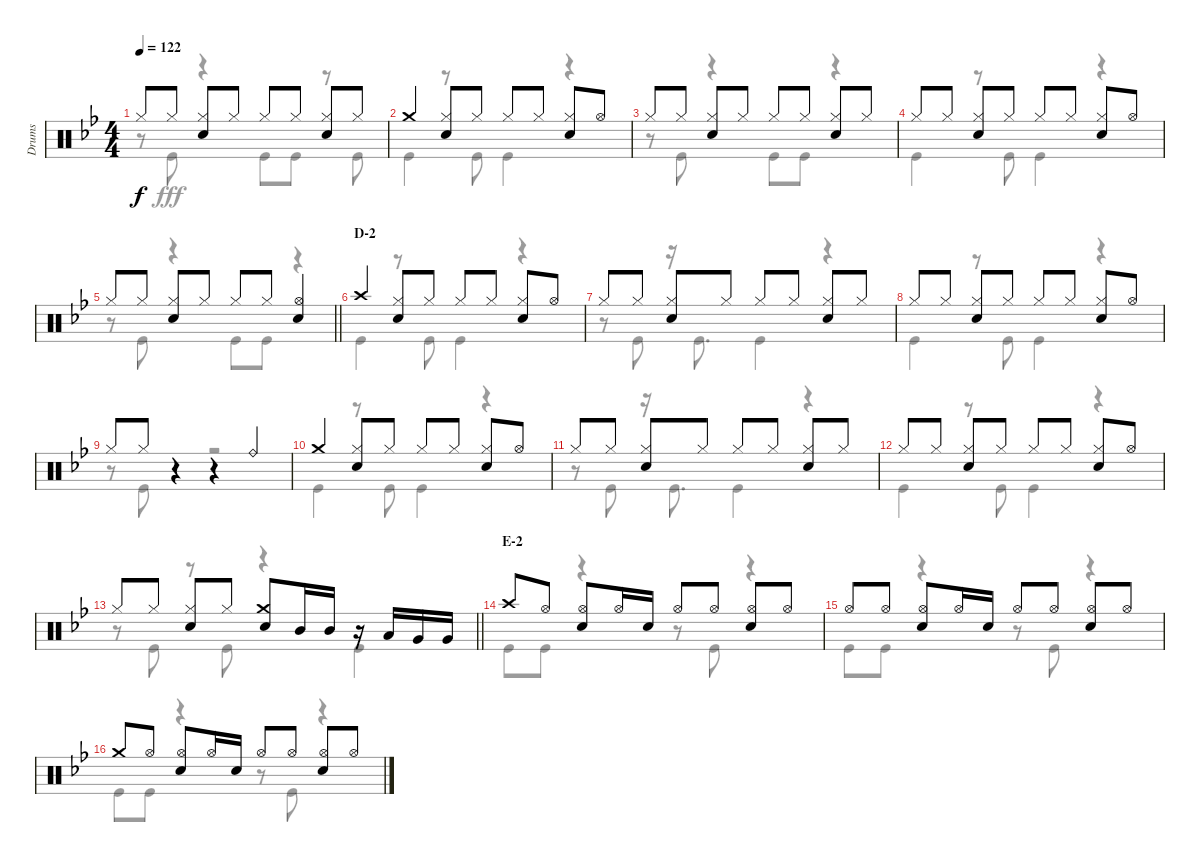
\track ("Drums" "Drums") {instrument percussion}
\staff {score}
\articulation defaults
\voice
\ts (4 4)
\tempo 122
\clef neutral
\ks bb "Hi-Hat (closed)".8{dy f} "Hi-Hat (closed)".8
("Hi-Hat (closed)" "Snare (hit) 2").8 "Hi-Hat (closed)".8 "Hi-Hat (closed)".8 "Hi-Hat (closed)".8 ("Hi-Hat (closed)" "Snare (hit) 2").8 "Hi-Hat (closed)".8 |
"Crash medium (hit)".4 ("Hi-Hat (closed)" "Snare (hit) 2").8 "Hi-Hat (closed)".8 "Hi-Hat (closed)".8 "Hi-Hat (closed)".8 ("Hi-Hat (closed)" "Snare (hit) 2").8 "Hi-Hat (open)".8 |
"Hi-Hat (closed)".8 "Hi-Hat (closed)".8 ("Hi-Hat (closed)" "Snare (hit) 2").8 "Hi-Hat (closed)".8 "Hi-Hat (closed)".8 "Hi-Hat (closed)".8 ("Hi-Hat (closed)" "Snare (hit) 2").8 "Hi-Hat (closed)".8 |
"Hi-Hat (closed)".8 "Hi-Hat (closed)".8 ("Hi-Hat (closed)" "Snare (hit) 2").8 "Hi-Hat (closed)".8 "Hi-Hat (closed)".8 "Hi-Hat (closed)".8 ("Hi-Hat (closed)" "Snare (hit) 2").8 "Hi-Hat (open)".8 |
\barLineRight lightlight "Hi-Hat (closed)".8 "Hi-Hat (closed)".8
("Hi-Hat (closed)" "Snare (hit) 2").8 "Hi-Hat (closed)".8 "Hi-Hat (closed)".8 "Hi-Hat (closed)".8 ("Hi-Hat (open)" "Snare (hit) 2").4 |
\section ("" "D-2")
"Crash high (hit)".4 ("Hi-Hat (closed)" "Snare (hit) 2").8 "Hi-Hat (closed)".8 "Hi-Hat (closed)".8 "Hi-Hat (closed)".8 ("Hi-Hat (closed)" "Snare (hit) 2").8 "Hi-Hat (open)".8 |
"Hi-Hat (closed)".8 "Hi-Hat (closed)".8 ("Hi-Hat (closed)" "Snare (hit) 2").8 "Hi-Hat (closed)".8 "Hi-Hat (closed)".8 "Hi-Hat (closed)".8 ("Hi-Hat (closed)" "Snare (hit) 2").8 "Hi-Hat (closed)".8 |
"Hi-Hat (closed)".8 "Hi-Hat (closed)".8 ("Hi-Hat (closed)" "Snare (hit) 2").8 "Hi-Hat (closed)".8 "Hi-Hat (closed)".8 "Hi-Hat (closed)".8 ("Hi-Hat (closed)" "Snare (hit) 2").8 "Hi-Hat (open)".8 |
"Hi-Hat (closed)".8 "Hi-Hat (closed)".8 r.4 r.4 "Ride (bell)".4 |
"Crash medium (hit)".4 ("Hi-Hat (closed)" "Snare (hit) 2").8 "Hi-Hat (closed)".8 "Hi-Hat (closed)".8 "Hi-Hat (closed)".8 ("Hi-Hat (closed)" "Snare (hit) 2").8 "Hi-Hat (open)".8 |
"Hi-Hat (closed)".8 "Hi-Hat (closed)".8 ("Hi-Hat (closed)" "Snare (hit) 2").8 "Hi-Hat (closed)".8 "Hi-Hat (closed)".8 "Hi-Hat (closed)".8 ("Hi-Hat (closed)" "Snare (hit) 2").8 "Hi-Hat (closed)".8 |
"Hi-Hat (closed)".8 "Hi-Hat (closed)".8 ("Hi-Hat (closed)" "Snare (hit) 2").8 "Hi-Hat (closed)".8 "Hi-Hat (closed)".8 "Hi-Hat (closed)".8 ("Hi-Hat (closed)" "Snare (hit) 2").8 "Hi-Hat (open)".8 |
\barLineRight lightlight "Hi-Hat (closed)".8 "Hi-Hat (closed)".8
("Hi-Hat (closed)" "Snare (hit) 2").8 "Hi-Hat (closed)".8 ("Crash medium (hit)" "Snare (hit) 2").8 "Mid Tom (hit)".16 "Mid Tom (hit)".16 r.16 "Low Tom (hit)".16 "Very Low Tom (hit)".16 "Very Low Tom (hit)".16 |
\section ("" "E-2")
"Crash high (hit)".8 "Hi-Hat (open)".8 ("Hi-Hat (open)" "Snare (hit) 2").8 "Hi-Hat (open)".16 "Snare (hit) 2".16 "Hi-Hat (open)".8 "Hi-Hat (open)".8 ("Hi-Hat (open)" "Snare (hit) 2").8 "Hi-Hat (open)".8 |
"Hi-Hat (open)".8 "Hi-Hat (open)".8 ("Hi-Hat (open)" "Snare (hit) 2").8 "Hi-Hat (open)".16 "Snare (hit) 2".16 "Hi-Hat (open)".8 "Hi-Hat (open)".8 ("Hi-Hat (open)" "Snare (hit) 2").8 "Hi-Hat (open)".8 |
"Crash medium (hit)".8 "Hi-Hat (open)".8 ("Hi-Hat (open)" "Snare (hit) 2").8 "Hi-Hat (open)".16 "Snare (hit) 2".16 "Hi-Hat (open)".8 "Hi-Hat (open)".8 ("Hi-Hat (open)" "Snare (hit) 2").8 "Hi-Hat (open)".8
\voice
\clef neutral
\ottava regular
\simile none
\ks bb
r.8{dy fff} "Kick (hit)".8 r.4 "Kick (hit)".8 "Kick (hit)".8 r.8 "Kick (hit)".8 |
"Kick (hit)".4 r.8 "Kick (hit)".8 "Kick (hit)".4 r.4 |
r.8 "Kick (hit)".8 r.4 "Kick (hit)".8 "Kick (hit)".8 r.4 |
"Kick (hit)".4 r.8 "Kick (hit)".8 "Kick (hit)".4 r.4 |
\barLineRight lightlight
r.8 "Kick (hit)".8 r.4 "Kick (hit)".8 "Kick (hit)".8 r.4 |
"Kick (hit)".4 r.8 "Kick (hit)".8 "Kick (hit)".4 r.4 |
r.8 "Kick (hit)".8 r.16 "Kick (hit)".8{d} "Kick (hit)".4 r.4 |
"Kick (hit)".4 r.8 "Kick (hit)".8 "Kick (hit)".4 r.4 |
r.8 "Kick (hit)".8 r.4 r.2 |
"Kick (hit)".4 r.8 "Kick (hit)".8 "Kick (hit)".4 r.4 |
r.8 "Kick (hit)".8 r.16 "Kick (hit)".8{d} "Kick (hit)".4 r.4 |
"Kick (hit)".4 r.8 "Kick (hit)".8 "Kick (hit)".4 r.4 |
\barLineRight lightlight
r.8 "Kick (hit)".8 r.8 "Kick (hit)".8 r.4 "Kick (hit)".4 |
"Kick (hit)".8 "Kick (hit)".8 r.4 r.8 "Kick (hit)".8 r.4 |
"Kick (hit)".8 "Kick (hit)".8 r.4 r.8 "Kick (hit)".8 r.4 |
"Kick (hit)".8 "Kick (hit)".8 r.4 r.8 "Kick (hit)".8 r.4
